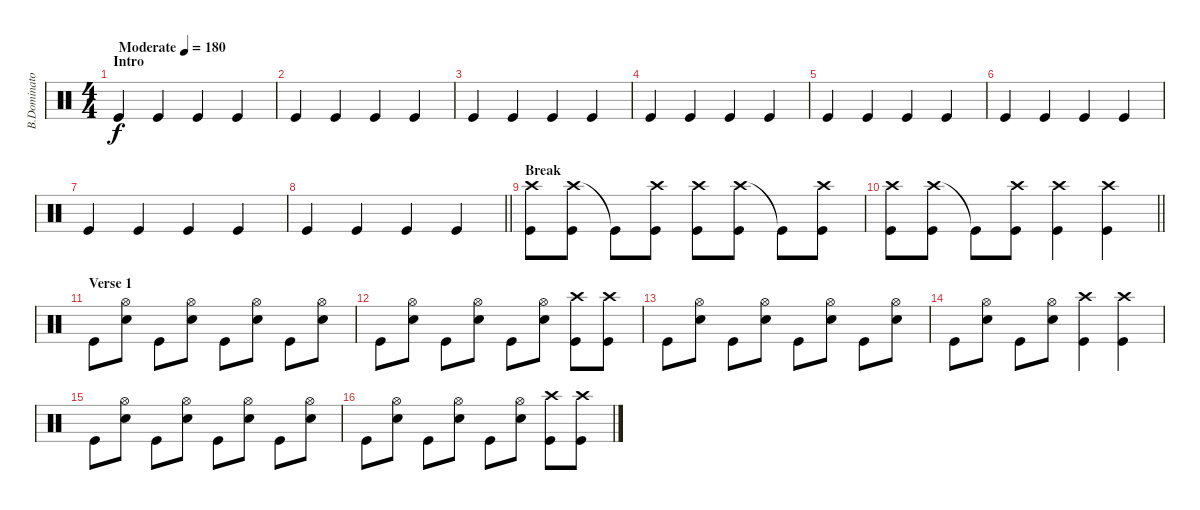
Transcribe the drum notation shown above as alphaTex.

\track ("B.Dominator" "B.Dominato") {instrument percussion}
\staff {score}
\articulation defaults
\ts (4 4)
\section ("" "Intro")
\tempo (180 "Moderate")
\clef neutral
\ks c "Kick (hit)".4{dy f} "Kick (hit)".4 "Kick (hit)".4 "Kick (hit)".4
|
"Kick (hit)".4 "Kick (hit)".4 "Kick (hit)".4 "Kick (hit)".4 |
"Kick (hit)".4 "Kick (hit)".4 "Kick (hit)".4 "Kick (hit)".4 |
"Kick (hit)".4 "Kick (hit)".4 "Kick (hit)".4 "Kick (hit)".4 |
"Kick (hit)".4 "Kick (hit)".4 "Kick (hit)".4 "Kick (hit)".4 |
"Kick (hit)".4 "Kick (hit)".4 "Kick (hit)".4 "Kick (hit)".4 |
"Kick (hit)".4 "Kick (hit)".4 "Kick (hit)".4 "Kick (hit)".4 |
\barLineRight lightlight "Kick (hit)".4 "Kick (hit)".4 "Kick (hit)".4 "Kick (hit)".4
|
\section ("" "Break")
("Crash high (hit)" "Kick (hit)").8 ("Crash high (hit)" "Kick (hit)").8 "Kick (hit)"{t}.8 ("Crash high (hit)" "Kick (hit)").8 ("Crash high (hit)" "Kick (hit)").8 ("Crash high (hit)" "Kick (hit)").8 "Kick (hit)"{t}.8 ("Crash high (hit)" "Kick (hit)").8 |
\barLineRight lightlight
("Crash high (hit)" "Kick (hit)").8 ("Crash high (hit)" "Kick (hit)").8 "Kick (hit)"{t}.8 ("Crash high (hit)" "Kick (hit)").8 ("Crash high (hit)" "Kick (hit)").4 ("Crash high (hit)" "Kick (hit)").4 |
\section ("" "Verse 1")
"Kick (hit)".8 ("Hi-Hat (open)" "Snare (hit) 2").8 "Kick (hit)".8 ("Hi-Hat (open)" "Snare (hit) 2").8 "Kick (hit)".8 ("Hi-Hat (open)" "Snare (hit) 2").8 "Kick (hit)".8 ("Hi-Hat (open)" "Snare (hit) 2").8 |
"Kick (hit)".8 ("Hi-Hat (open)" "Snare (hit) 2").8 "Kick (hit)".8 ("Hi-Hat (open)" "Snare (hit) 2").8 "Kick (hit)".8 ("Hi-Hat (open)" "Snare (hit) 2").8 ("Crash high (hit)" "Kick (hit)").8 ("Crash high (hit)" "Kick (hit)").8 |
"Kick (hit)".8 ("Hi-Hat (open)" "Snare (hit) 2").8 "Kick (hit)".8 ("Hi-Hat (open)" "Snare (hit) 2").8 "Kick (hit)".8 ("Hi-Hat (open)" "Snare (hit) 2").8 "Kick (hit)".8 ("Hi-Hat (open)" "Snare (hit) 2").8 |
"Kick (hit)".8 ("Hi-Hat (open)" "Snare (hit) 2").8 "Kick (hit)".8 ("Hi-Hat (open)" "Snare (hit) 2").8 ("Crash high (hit)" "Kick (hit)").4 ("Crash high (hit)" "Kick (hit)").4 |
"Kick (hit)".8 ("Hi-Hat (open)" "Snare (hit) 2").8 "Kick (hit)".8 ("Hi-Hat (open)" "Snare (hit) 2").8 "Kick (hit)".8 ("Hi-Hat (open)" "Snare (hit) 2").8 "Kick (hit)".8 ("Hi-Hat (open)" "Snare (hit) 2").8 |
"Kick (hit)".8 ("Hi-Hat (open)" "Snare (hit) 2").8 "Kick (hit)".8 ("Hi-Hat (open)" "Snare (hit) 2").8 "Kick (hit)".8 ("Hi-Hat (open)" "Snare (hit) 2").8 ("Crash high (hit)" "Kick (hit)").8 ("Crash high (hit)" "Kick (hit)").8
